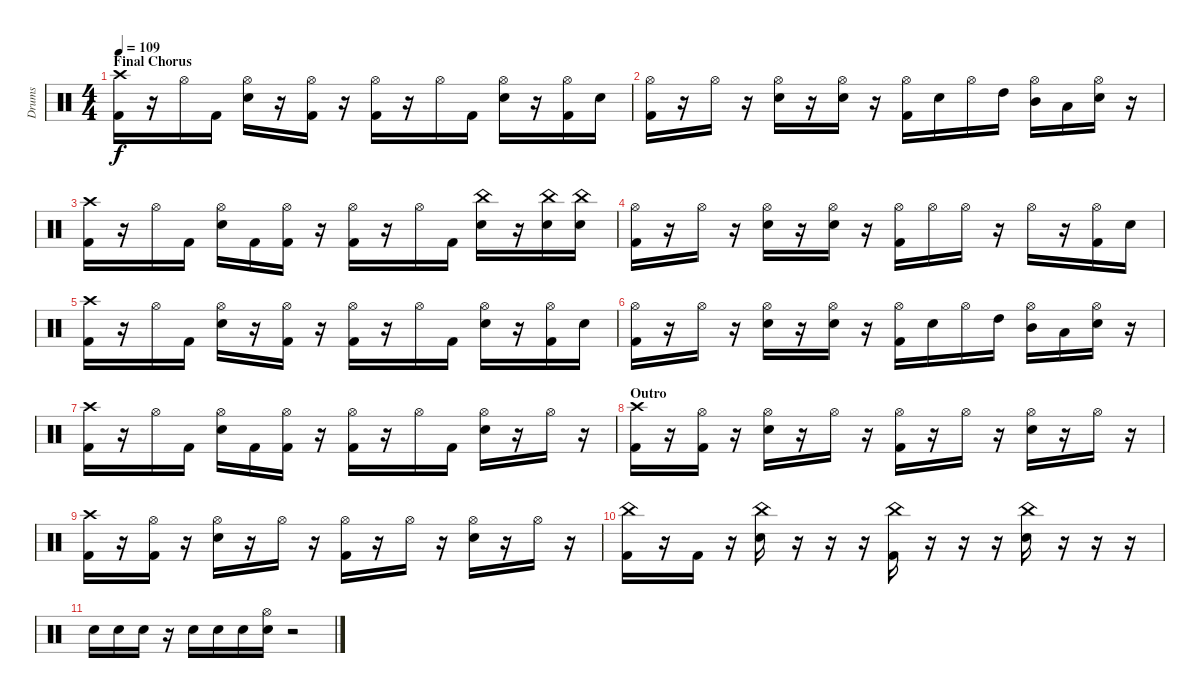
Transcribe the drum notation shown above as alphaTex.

\track ("Drums" "Drums") {instrument percussion}
\staff {score}
\articulation defaults
\ts (4 4)
\section ("" "Final Chorus")
\tempo 109
\clef neutral
\ks c
("Crash high (hit)" "Kick (hit) 2").16{dy f} r.16 "Hi-Hat (open)".16 "Kick (hit) 2".16 ("Hi-Hat (open)" "Snare (hit) 2").16 r.16 ("Hi-Hat (open)" "Kick (hit) 2").16 r.16 ("Hi-Hat (open)" "Kick (hit) 2").16 r.16 "Hi-Hat (open)".16 "Kick (hit) 2".16 ("Hi-Hat (open)" "Snare (hit) 2").16 r.16 ("Hi-Hat (open)" "Kick (hit) 2").16 "Snare (hit) 2".16 |
("Hi-Hat (open)" "Kick (hit) 2").16 r.16 "Hi-Hat (open)".16 r.16 ("Hi-Hat (open)" "Snare (hit) 2").16 r.16 ("Hi-Hat (open)" "Snare (hit) 2").16 r.16 ("Hi-Hat (open)" "Kick (hit) 2").16 "Snare (hit) 2".16 "Hi-Hat (open)".16 "High Tom (hit)".16 ("Hi-Hat (open)" "Mid Tom (hit)").16 "Low Tom (hit)".16 ("Hi-Hat (open)" "Snare (hit) 2").16 r.16 |
("Crash high (hit)" "Kick (hit) 2").16 r.16 "Hi-Hat (open)".16 "Kick (hit) 2".16 ("Hi-Hat (open)" "Snare (hit) 2").16 "Kick (hit) 2".16 ("Hi-Hat (open)" "Kick (hit) 2").16 r.16 ("Hi-Hat (open)" "Kick (hit) 2").16 r.16 "Hi-Hat (open)".16 "Kick (hit) 2".16 ("China (hit)" "Snare (hit) 2").16 r.16 ("China (hit)" "Snare (hit) 2").16 ("China (hit)" "Snare (hit) 2").16 |
("Hi-Hat (open)" "Kick (hit) 2").16 r.16 "Hi-Hat (open)".16 r.16 ("Hi-Hat (open)" "Snare (hit) 2").16 r.16 ("Hi-Hat (open)" "Snare (hit) 2").16 r.16 ("Hi-Hat (open)" "Kick (hit) 2").16 "Hi-Hat (open)".16 "Hi-Hat (open)".16 r.16 "Hi-Hat (open)".16 r.16 ("Hi-Hat (open)" "Kick (hit) 2").16 "Snare (hit) 2".16 |
("Crash high (hit)" "Kick (hit) 2").16 r.16 "Hi-Hat (open)".16 "Kick (hit) 2".16 ("Hi-Hat (open)" "Snare (hit) 2").16 r.16 ("Hi-Hat (open)" "Kick (hit) 2").16 r.16 ("Hi-Hat (open)" "Kick (hit) 2").16 r.16 "Hi-Hat (open)".16 "Kick (hit) 2".16 ("Hi-Hat (open)" "Snare (hit) 2").16 r.16 ("Hi-Hat (open)" "Kick (hit) 2").16 "Snare (hit) 2".16 |
("Hi-Hat (open)" "Kick (hit) 2").16 r.16 "Hi-Hat (open)".16 r.16 ("Hi-Hat (open)" "Snare (hit) 2").16 r.16 ("Hi-Hat (open)" "Snare (hit) 2").16 r.16 ("Hi-Hat (open)" "Kick (hit) 2").16 "Snare (hit) 2".16 "Hi-Hat (open)".16 "High Tom (hit)".16 ("Hi-Hat (open)" "Mid Tom (hit)").16 "Low Tom (hit)".16 ("Hi-Hat (open)" "Snare (hit) 2").16 r.16 |
("Crash high (hit)" "Kick (hit) 2").16 r.16 "Hi-Hat (open)".16 "Kick (hit) 2".16 ("Hi-Hat (open)" "Snare (hit) 2").16 "Kick (hit) 2".16 ("Hi-Hat (open)" "Kick (hit) 2").16 r.16 ("Hi-Hat (open)" "Kick (hit) 2").16 r.16 "Hi-Hat (open)".16 "Kick (hit) 2".16 ("Hi-Hat (open)" "Snare (hit) 2").16 r.16 "Hi-Hat (open)".16 r.16 |
\section ("" "Outro")
("Crash high (hit)" "Kick (hit) 2").16 r.16 ("Hi-Hat (open)" "Kick (hit) 2").16 r.16 ("Hi-Hat (open)" "Snare (hit) 2").16 r.16 "Hi-Hat (open)".16 r.16 ("Hi-Hat (open)" "Kick (hit) 2").16 r.16 "Hi-Hat (open)".16 r.16 ("Hi-Hat (open)" "Snare (hit) 2").16 r.16 "Hi-Hat (open)".16 r.16 |
("Crash high (hit)" "Kick (hit) 2").16 r.16 ("Hi-Hat (open)" "Kick (hit) 2").16 r.16 ("Hi-Hat (open)" "Snare (hit) 2").16 r.16 "Hi-Hat (open)".16 r.16 ("Hi-Hat (open)" "Kick (hit) 2").16 r.16 "Hi-Hat (open)".16 r.16 ("Hi-Hat (open)" "Snare (hit) 2").16 r.16 "Hi-Hat (open)".16 r.16 |
("China (hit)" "Kick (hit) 2").16 r.16 "Kick (hit) 2".16 r.16 ("China (hit)" "Snare (hit) 2").16 r.16 r.16 r.16 ("China (hit)" "Kick (hit) 2").16 r.16 r.16 r.16 ("China (hit)" "Snare (hit) 2").16 r.16 r.16 r.16 |
"Snare (hit) 2".16 "Snare (hit) 2".16 "Snare (hit) 2".16 r.16 "Snare (hit) 2".16 "Snare (hit) 2".16 "Snare (hit) 2".16 ("Hi-Hat (open)" "Snare (hit) 2").16 r.2
